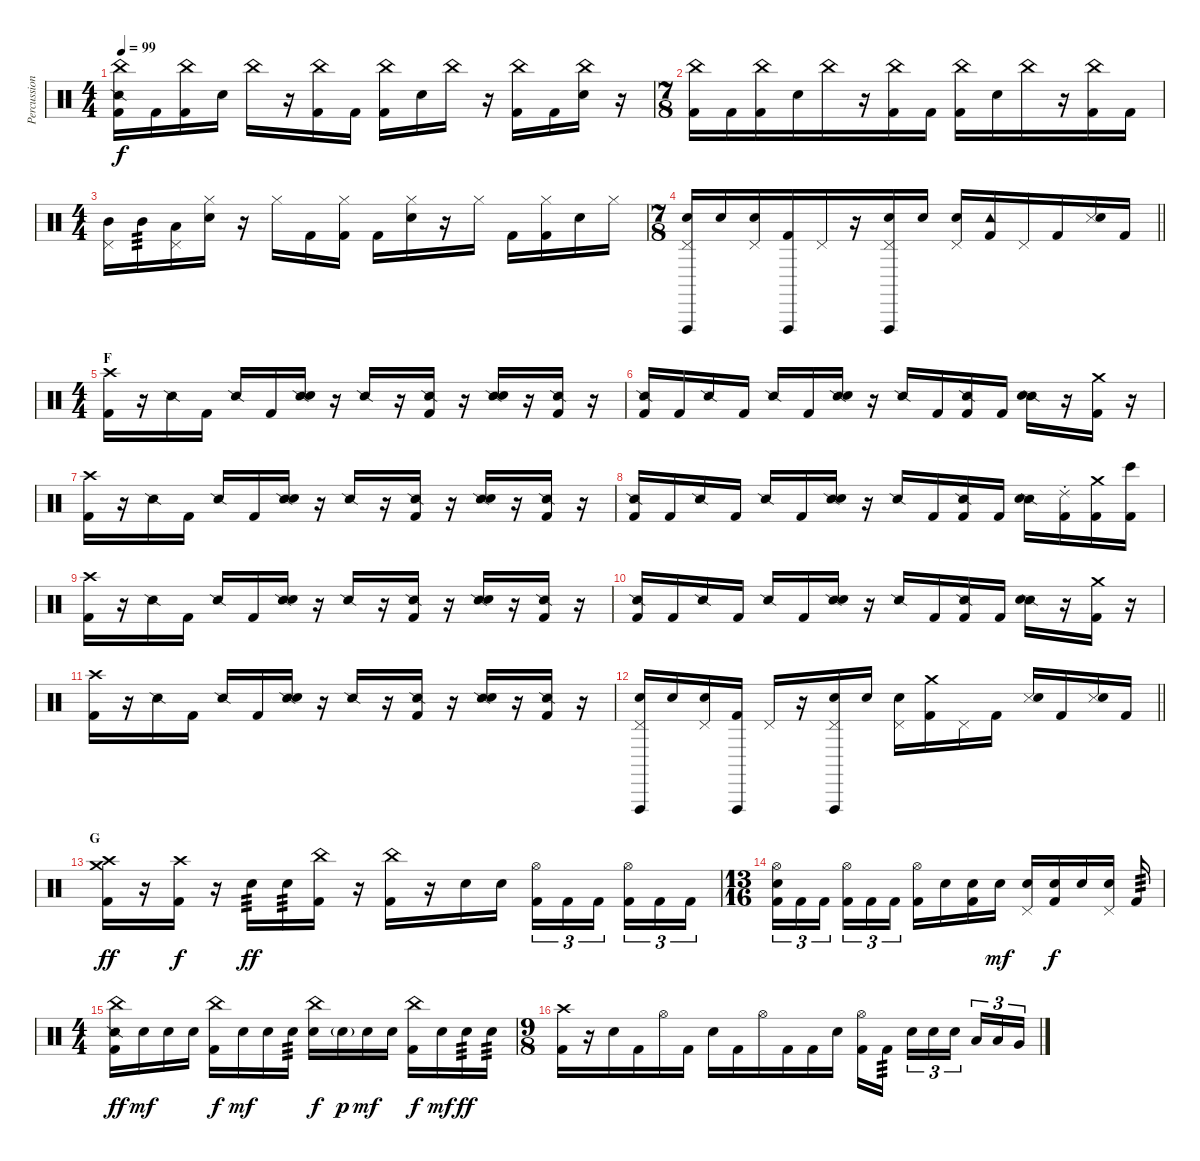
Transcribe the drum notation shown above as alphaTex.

\track ("Percussion" "Percussion") {instrument percussion}
\staff {score}
\articulation defaults
\ts (4 4)
\tempo 99
\clef neutral
\ks c
("China (hit)" "Snare (side stick) 2" "Kick (hit) 2").16{dy f} "Kick (hit) 2".16 ("China (hit)" "Kick (hit) 2").16 "Snare (hit) 2".16 "China (hit)".16 r.16 ("China (hit)" "Kick (hit) 2").16 "Kick (hit) 2".16 ("China (hit)" "Kick (hit) 2").16 "Snare (hit) 2".16 "China (hit)".16 r.16 ("China (hit)" "Kick (hit) 2").16 "Kick (hit) 2".16 ("China (hit)" "Snare (hit) 2").16 r.16 |
\ts (7 8)
("China (hit)" "Kick (hit) 2").16 "Kick (hit) 2".16 ("China (hit)" "Kick (hit) 2").16 "Snare (hit) 2".16 "China (hit)".16 r.16 ("China (hit)" "Kick (hit) 2").16 "Kick (hit) 2".16 ("China (hit)" "Kick (hit) 2").16 "Snare (hit) 2".16 "China (hit)".16 r.16 ("China (hit)" "Kick (hit) 2").16 "Kick (hit) 2".16 |
\ts (4 4)
("Pedal Hi-Hat (hit)" "Mid Tom (hit)").16 "Mid Tom (hit)".16{tp 3} ("Pedal Hi-Hat (hit)" "Low Tom (hit)").16 ("Hi-Hat (closed)" "Snare (hit) 2").16 r.16 "Hi-Hat (closed)".16 "Kick (hit) 2".16 ("Hi-Hat (closed)" "Kick (hit) 2").16 "Kick (hit) 2".16 ("Hi-Hat (closed)" "Snare (hit) 2").16 r.16 "Hi-Hat (closed)".16 "Kick (hit) 2".16 ("Hi-Hat (closed)" "Kick (hit) 2").16 "Snare (hit) 2".16 "Hi-Hat (closed)".16 |
\ts (7 8)
\barLineRight lightlight
("Vibraslap (hit)" "Pedal Hi-Hat (hit)" "Snare (hit) 2").16 "Snare (hit) 2".16 ("Pedal Hi-Hat (hit)" "Snare (hit) 2").16 ("Vibraslap (hit)" "Kick (hit) 2").16 "Pedal Hi-Hat (hit)".16 r.16 ("Vibraslap (hit)" "Pedal Hi-Hat (hit)" "Snare (hit) 2").16 "Snare (hit) 2".16 ("Pedal Hi-Hat (hit)" "Snare (hit) 2").16 ("Tambourine (hit)" "Kick (hit) 2").16 "Pedal Hi-Hat (hit)".16 "Kick (hit) 2".16 ("Metronome (hit)" "Snare (hit) 2").16{bu 120} "Kick (hit) 2".16 |
\ts (4 4)
\section ("" "F")
("Crash high (hit)" "Kick (hit) 2").16 r.16 "Snare (side stick) 2".16 "Kick (hit) 2".16 "Snare (side stick) 2".16 "Kick (hit) 2".16 ("Snare (side stick) 2" "Snare (hit) 2").16 r.16 "Snare (side stick) 2".16 r.16 ("Snare (side stick) 2" "Kick (hit) 2").16 r.16 ("Snare (side stick) 2" "Snare (hit) 2").16 r.16 ("Snare (side stick) 2" "Kick (hit) 2").16 r.16 |
("Snare (side stick) 2" "Kick (hit) 2").16 "Kick (hit) 2".16 "Snare (side stick) 2".16 "Kick (hit) 2".16 "Snare (side stick) 2".16 "Kick (hit) 2".16 ("Snare (side stick) 2" "Snare (hit) 2").16 r.16 "Snare (side stick) 2".16 "Kick (hit) 2".16 ("Snare (side stick) 2" "Kick (hit) 2").16 "Kick (hit) 2".16 ("Snare (side stick) 2" "Snare (hit) 2").16 r.16 ("Crash medium (hit)" "Kick (hit) 2").16 r.16 |
("Crash high (hit)" "Kick (hit) 2").16 r.16 "Snare (side stick) 2".16 "Kick (hit) 2".16 "Snare (side stick) 2".16 "Kick (hit) 2".16 ("Snare (side stick) 2" "Snare (hit) 2").16 r.16 "Snare (side stick) 2".16 r.16 ("Snare (side stick) 2" "Kick (hit) 2").16 r.16 ("Snare (side stick) 2" "Snare (hit) 2").16 r.16 ("Snare (side stick) 2" "Kick (hit) 2").16 r.16 |
("Snare (side stick) 2" "Kick (hit) 2").16 "Kick (hit) 2".16 "Snare (side stick) 2".16 "Kick (hit) 2".16 "Snare (side stick) 2".16 "Kick (hit) 2".16 ("Snare (side stick) 2" "Snare (hit) 2").16 r.16 "Snare (side stick) 2".16 "Kick (hit) 2".16 ("Snare (side stick) 2" "Kick (hit) 2").16 "Kick (hit) 2".16 ("Snare (side stick) 2" "Snare (hit) 2").16 ("Ride (choke) 2" "Kick (hit) 2").16 ("Crash medium (hit)" "Kick (hit) 2").16 ("Bongo High (hit)" "Kick (hit) 2").16 |
("Crash high (hit)" "Kick (hit) 2").16 r.16 "Snare (side stick) 2".16 "Kick (hit) 2".16 "Snare (side stick) 2".16 "Kick (hit) 2".16 ("Snare (side stick) 2" "Snare (hit) 2").16 r.16 "Snare (side stick) 2".16 r.16 ("Snare (side stick) 2" "Kick (hit) 2").16 r.16 ("Snare (side stick) 2" "Snare (hit) 2").16 r.16 ("Snare (side stick) 2" "Kick (hit) 2").16 r.16 |
("Snare (side stick) 2" "Kick (hit) 2").16 "Kick (hit) 2".16 "Snare (side stick) 2".16 "Kick (hit) 2".16 "Snare (side stick) 2".16 "Kick (hit) 2".16 ("Snare (side stick) 2" "Snare (hit) 2").16 r.16 "Snare (side stick) 2".16 "Kick (hit) 2".16 ("Snare (side stick) 2" "Kick (hit) 2").16 "Kick (hit) 2".16 ("Snare (side stick) 2" "Snare (hit) 2").16 r.16 ("Crash medium (hit)" "Kick (hit) 2").16 r.16 |
("Crash high (hit)" "Kick (hit) 2").16 r.16 "Snare (side stick) 2".16 "Kick (hit) 2".16 "Snare (side stick) 2".16 "Kick (hit) 2".16 ("Snare (side stick) 2" "Snare (hit) 2").16 r.16 "Snare (side stick) 2".16 r.16 ("Snare (side stick) 2" "Kick (hit) 2").16 r.16 ("Snare (side stick) 2" "Snare (hit) 2").16 r.16 ("Snare (side stick) 2" "Kick (hit) 2").16 r.16 |
\barLineRight lightlight
("Vibraslap (hit)" "Pedal Hi-Hat (hit)" "Snare (hit) 2").16 "Snare (hit) 2".16 ("Pedal Hi-Hat (hit)" "Snare (hit) 2").16 ("Vibraslap (hit)" "Kick (hit) 2").16 "Pedal Hi-Hat (hit)".16 r.16 ("Vibraslap (hit)" "Pedal Hi-Hat (hit)" "Snare (hit) 2").16 "Snare (hit) 2".16 ("Pedal Hi-Hat (hit)" "Snare (hit) 2").16 ("Crash medium (hit)" "Kick (hit) 2").16 "Pedal Hi-Hat (hit)".16 "Kick (hit) 2".16 ("Metronome (hit)" "Snare (hit) 2").16{bu 120} "Kick (hit) 2".16 ("Metronome (hit)" "Snare (hit) 2").16{bu 120} "Kick (hit) 2".16 |
\section ("" "G")
("Crash high (hit)" "Crash medium (hit)" "Kick (hit) 2").16{dy ff} r.16 ("Crash high (hit)" "Kick (hit) 2").16{dy f} r.16 "Snare (hit) 2".16{tp 3 dy ff} "Snare (hit) 2".16{tp 3} ("China (hit)" "Kick (hit) 2").16 r.16 ("China (hit)" "Kick (hit) 2").16 r.16 "Snare (hit) 2".16 "Snare (hit) 2".16 ("Hi-Hat (open)" "Kick (hit) 2").16{tu (3 2)} "Kick (hit) 2".16{tu (3 2)} "Kick (hit) 2".16{tu (3 2) beam splitsecondary} ("Hi-Hat (open)" "Kick (hit) 2").16{tu (3 2)} "Kick (hit) 2".16{tu (3 2)} "Kick (hit) 2".16{tu (3 2)} |
\ts (13 16)
("Hi-Hat (open)" "Snare (hit) 2" "Kick (hit) 2").16{tu (3 2)} "Kick (hit) 2".16{tu (3 2)} "Kick (hit) 2".16{tu (3 2)} ("Hi-Hat (open)" "Kick (hit) 2").16{tu (3 2)} "Kick (hit) 2".16{tu (3 2)} "Kick (hit) 2".16{tu (3 2)} ("Hi-Hat (open)" "Kick (hit) 2").16 "Snare (hit) 2".16 ("Snare (hit)" "Kick (hit) 2").16 "Snare (hit) 2".16{dy mf} ("Pedal Hi-Hat (hit)" "Snare (hit) 2").16 ("Snare (hit)" "Kick (hit) 2").16{dy f} "Snare (hit) 2".16 ("Pedal Hi-Hat (hit)" "Snare (hit) 2").16 "Kick (hit) 2".16{tp 3} |
\ts (4 4)
("China (hit)" "Snare (side stick) 2" "Kick (hit) 2").16{dy ff} "Snare (hit) 2".16{dy mf} "Snare (hit) 2".16 "Snare (hit) 2".16 ("China (hit)" "Kick (hit) 2").16{dy f} "Snare (hit) 2".16{dy mf} "Snare (hit) 2".16 "Snare (hit) 2".16{tp 3} ("China (hit)" "Snare (hit) 2").16{dy f} "Snare (hit) 2"{g}.16{dy p} "Snare (hit) 2".16{dy mf} "Snare (hit) 2".16 ("China (hit)" "Kick (hit) 2").16{dy f} "Snare (hit) 2".16{dy mf} "Snare (hit) 2".16{tp 3 dy ff} "Snare (hit) 2".16{tp 3} |
\ts (9 8)
("Crash high (hit)" "Kick (hit) 2").16 r.16 "Snare (hit) 2".16 "Kick (hit) 2".16 "Hi-Hat (open)".16 "Kick (hit) 2".16 "Snare (hit) 2".16 "Kick (hit) 2".16 "Hi-Hat (open)".16 "Kick (hit) 2".16 "Kick (hit) 2".16 "Snare (hit) 2".16 ("Hi-Hat (open)" "Kick (hit) 2").16 "Kick (hit) 2".16{tp 3 beam splitsecondary} "Snare (hit) 2".16{tu (3 2)} "Snare (hit) 2".16{tu (3 2)} "Snare (hit) 2".16{tu (3 2) beam splitsecondary} "Low Tom (hit)".16{tu (3 2)} "Low Tom (hit)".16{tu (3 2)} "Very Low Tom (hit)".16{tu (3 2)}
